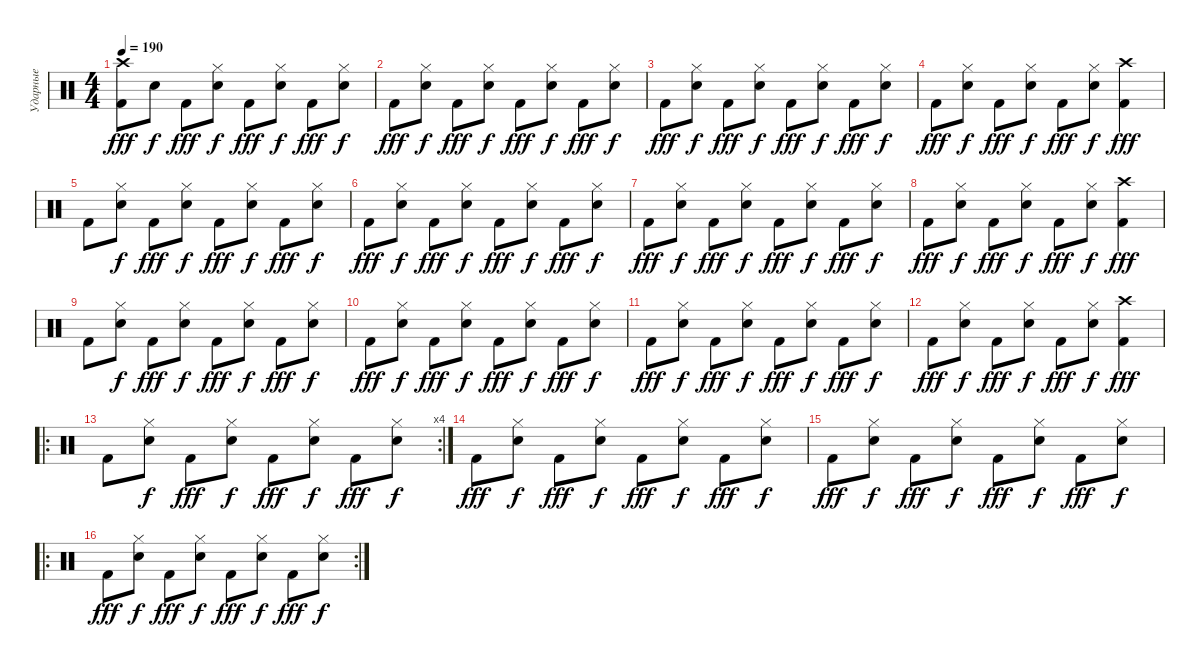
\track ("Ударные" "Ударные") {instrument percussion}
\staff
\articulation defaults
\ts (4 4)
\tempo 190
\clef neutral
\ks c
("Kick (hit) 2" "Crash high (hit)").8{dy fff} "Snare (hit) 2".8{dy f} "Kick (hit) 2".8{dy fff} ("Snare (hit) 2" "Hi-Hat (closed)").8{dy f} "Kick (hit) 2".8{dy fff} ("Snare (hit) 2" "Hi-Hat (closed)").8{dy f} "Kick (hit) 2".8{dy fff} ("Snare (hit) 2" "Hi-Hat (closed)").8{dy f} |
"Kick (hit) 2".8{dy fff} ("Snare (hit) 2" "Hi-Hat (closed)").8{dy f} "Kick (hit) 2".8{dy fff} ("Snare (hit) 2" "Hi-Hat (closed)").8{dy f} "Kick (hit) 2".8{dy fff} ("Snare (hit) 2" "Hi-Hat (closed)").8{dy f} "Kick (hit) 2".8{dy fff} ("Snare (hit) 2" "Hi-Hat (closed)").8{dy f} |
"Kick (hit) 2".8{dy fff} ("Snare (hit) 2" "Hi-Hat (closed)").8{dy f} "Kick (hit) 2".8{dy fff} ("Snare (hit) 2" "Hi-Hat (closed)").8{dy f} "Kick (hit) 2".8{dy fff} ("Snare (hit) 2" "Hi-Hat (closed)").8{dy f} "Kick (hit) 2".8{dy fff} ("Snare (hit) 2" "Hi-Hat (closed)").8{dy f} |
"Kick (hit) 2".8{dy fff} ("Snare (hit) 2" "Hi-Hat (closed)").8{dy f} "Kick (hit) 2".8{dy fff} ("Snare (hit) 2" "Hi-Hat (closed)").8{dy f} "Kick (hit) 2".8{dy fff} ("Snare (hit) 2" "Hi-Hat (closed)").8{dy f} ("Kick (hit) 2" "Crash high (hit)").4{dy fff} |
"Kick (hit) 2".8 ("Snare (hit) 2" "Hi-Hat (closed)").8{dy f} "Kick (hit) 2".8{dy fff} ("Snare (hit) 2" "Hi-Hat (closed)").8{dy f} "Kick (hit) 2".8{dy fff} ("Snare (hit) 2" "Hi-Hat (closed)").8{dy f} "Kick (hit) 2".8{dy fff} ("Snare (hit) 2" "Hi-Hat (closed)").8{dy f} |
"Kick (hit) 2".8{dy fff} ("Snare (hit) 2" "Hi-Hat (closed)").8{dy f} "Kick (hit) 2".8{dy fff} ("Snare (hit) 2" "Hi-Hat (closed)").8{dy f} "Kick (hit) 2".8{dy fff} ("Snare (hit) 2" "Hi-Hat (closed)").8{dy f} "Kick (hit) 2".8{dy fff} ("Snare (hit) 2" "Hi-Hat (closed)").8{dy f} |
"Kick (hit) 2".8{dy fff} ("Snare (hit) 2" "Hi-Hat (closed)").8{dy f} "Kick (hit) 2".8{dy fff} ("Snare (hit) 2" "Hi-Hat (closed)").8{dy f} "Kick (hit) 2".8{dy fff} ("Snare (hit) 2" "Hi-Hat (closed)").8{dy f} "Kick (hit) 2".8{dy fff} ("Snare (hit) 2" "Hi-Hat (closed)").8{dy f} |
"Kick (hit) 2".8{dy fff} ("Snare (hit) 2" "Hi-Hat (closed)").8{dy f} "Kick (hit) 2".8{dy fff} ("Snare (hit) 2" "Hi-Hat (closed)").8{dy f} "Kick (hit) 2".8{dy fff} ("Snare (hit) 2" "Hi-Hat (closed)").8{dy f} ("Kick (hit) 2" "Crash high (hit)").4{dy fff} |
"Kick (hit) 2".8 ("Snare (hit) 2" "Hi-Hat (closed)").8{dy f} "Kick (hit) 2".8{dy fff} ("Snare (hit) 2" "Hi-Hat (closed)").8{dy f} "Kick (hit) 2".8{dy fff} ("Snare (hit) 2" "Hi-Hat (closed)").8{dy f} "Kick (hit) 2".8{dy fff} ("Snare (hit) 2" "Hi-Hat (closed)").8{dy f} |
"Kick (hit) 2".8{dy fff} ("Snare (hit) 2" "Hi-Hat (closed)").8{dy f} "Kick (hit) 2".8{dy fff} ("Snare (hit) 2" "Hi-Hat (closed)").8{dy f} "Kick (hit) 2".8{dy fff} ("Snare (hit) 2" "Hi-Hat (closed)").8{dy f} "Kick (hit) 2".8{dy fff} ("Snare (hit) 2" "Hi-Hat (closed)").8{dy f} |
"Kick (hit) 2".8{dy fff} ("Snare (hit) 2" "Hi-Hat (closed)").8{dy f} "Kick (hit) 2".8{dy fff} ("Snare (hit) 2" "Hi-Hat (closed)").8{dy f} "Kick (hit) 2".8{dy fff} ("Snare (hit) 2" "Hi-Hat (closed)").8{dy f} "Kick (hit) 2".8{dy fff} ("Snare (hit) 2" "Hi-Hat (closed)").8{dy f} |
"Kick (hit) 2".8{dy fff} ("Snare (hit) 2" "Hi-Hat (closed)").8{dy f} "Kick (hit) 2".8{dy fff} ("Snare (hit) 2" "Hi-Hat (closed)").8{dy f} "Kick (hit) 2".8{dy fff} ("Snare (hit) 2" "Hi-Hat (closed)").8{dy f} ("Kick (hit) 2" "Crash high (hit)").4{dy fff} |
\ro
\rc 4 "Kick (hit) 2".8
("Snare (hit) 2" "Hi-Hat (closed)").8{dy f} "Kick (hit) 2".8{dy fff} ("Snare (hit) 2" "Hi-Hat (closed)").8{dy f} "Kick (hit) 2".8{dy fff} ("Snare (hit) 2" "Hi-Hat (closed)").8{dy f} "Kick (hit) 2".8{dy fff} ("Snare (hit) 2" "Hi-Hat (closed)").8{dy f} |
"Kick (hit) 2".8{dy fff} ("Snare (hit) 2" "Hi-Hat (closed)").8{dy f} "Kick (hit) 2".8{dy fff} ("Snare (hit) 2" "Hi-Hat (closed)").8{dy f} "Kick (hit) 2".8{dy fff} ("Snare (hit) 2" "Hi-Hat (closed)").8{dy f} "Kick (hit) 2".8{dy fff} ("Snare (hit) 2" "Hi-Hat (closed)").8{dy f} |
"Kick (hit) 2".8{dy fff} ("Snare (hit) 2" "Hi-Hat (closed)").8{dy f} "Kick (hit) 2".8{dy fff} ("Snare (hit) 2" "Hi-Hat (closed)").8{dy f} "Kick (hit) 2".8{dy fff} ("Snare (hit) 2" "Hi-Hat (closed)").8{dy f} "Kick (hit) 2".8{dy fff} ("Snare (hit) 2" "Hi-Hat (closed)").8{dy f} |
\ro
\rc 2 "Kick (hit) 2".8{dy fff}
("Snare (hit) 2" "Hi-Hat (closed)").8{dy f} "Kick (hit) 2".8{dy fff} ("Snare (hit) 2" "Hi-Hat (closed)").8{dy f} "Kick (hit) 2".8{dy fff} ("Snare (hit) 2" "Hi-Hat (closed)").8{dy f} "Kick (hit) 2".8{dy fff} ("Snare (hit) 2" "Hi-Hat (closed)").8{dy f}
